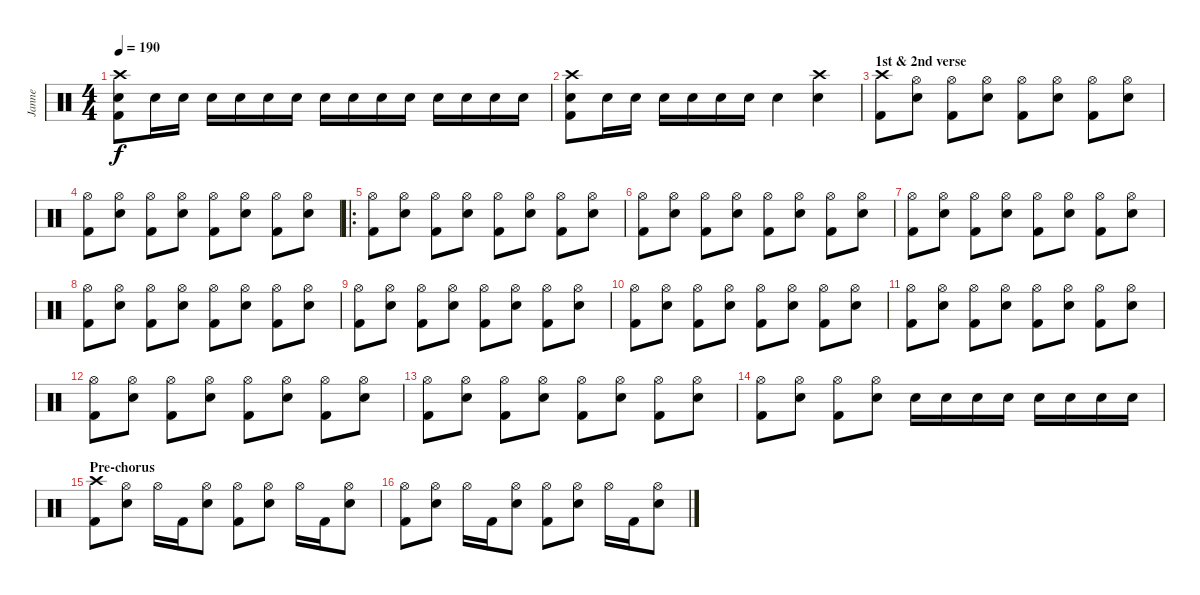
\track ("Janne" "Janne") {instrument percussion}
\staff {score}
\articulation defaults
\ts (4 4)
\tempo 190
\clef neutral
\ks c
("Crash high (hit)" "Electric Snare (hit)" "Kick (hit) 2").8{dy f} "Electric Snare (hit)".16 "Electric Snare (hit)".16 "Electric Snare (hit)".16 "Electric Snare (hit)".16 "Electric Snare (hit)".16 "Electric Snare (hit)".16 "Electric Snare (hit)".16 "Electric Snare (hit)".16 "Electric Snare (hit)".16 "Electric Snare (hit)".16 "Electric Snare (hit)".16 "Electric Snare (hit)".16 "Electric Snare (hit)".16 "Electric Snare (hit)".16 |
("Crash high (hit)" "Electric Snare (hit)" "Kick (hit) 2").8 "Electric Snare (hit)".16 "Electric Snare (hit)".16 "Electric Snare (hit)".16 "Electric Snare (hit)".16 "Electric Snare (hit)".16 "Electric Snare (hit)".16 "Electric Snare (hit)".4 ("Crash high (hit)" "Electric Snare (hit)").4 |
\section ("" "1st & 2nd verse")
("Crash high (hit)" "Kick (hit) 2").8 ("Hi-Hat (open)" "Electric Snare (hit)").8 ("Hi-Hat (open)" "Kick (hit) 2").8 ("Hi-Hat (open)" "Electric Snare (hit)").8 ("Hi-Hat (open)" "Kick (hit) 2").8 ("Hi-Hat (open)" "Electric Snare (hit)").8 ("Hi-Hat (open)" "Kick (hit) 2").8 ("Hi-Hat (open)" "Electric Snare (hit)").8 |
("Hi-Hat (open)" "Kick (hit) 2").8 ("Hi-Hat (open)" "Electric Snare (hit)").8 ("Hi-Hat (open)" "Kick (hit) 2").8 ("Hi-Hat (open)" "Electric Snare (hit)").8 ("Hi-Hat (open)" "Kick (hit) 2").8 ("Hi-Hat (open)" "Electric Snare (hit)").8 ("Hi-Hat (open)" "Kick (hit) 2").8 ("Hi-Hat (open)" "Electric Snare (hit)").8 |
\ro
("Hi-Hat (open)" "Kick (hit) 2").8 ("Hi-Hat (open)" "Electric Snare (hit)").8 ("Hi-Hat (open)" "Kick (hit) 2").8 ("Hi-Hat (open)" "Electric Snare (hit)").8 ("Hi-Hat (open)" "Kick (hit) 2").8 ("Hi-Hat (open)" "Electric Snare (hit)").8 ("Hi-Hat (open)" "Kick (hit) 2").8 ("Hi-Hat (open)" "Electric Snare (hit)").8 |
("Hi-Hat (open)" "Kick (hit) 2").8 ("Hi-Hat (open)" "Electric Snare (hit)").8 ("Hi-Hat (open)" "Kick (hit) 2").8 ("Hi-Hat (open)" "Electric Snare (hit)").8 ("Hi-Hat (open)" "Kick (hit) 2").8 ("Hi-Hat (open)" "Electric Snare (hit)").8 ("Hi-Hat (open)" "Kick (hit) 2").8 ("Hi-Hat (open)" "Electric Snare (hit)").8 |
("Hi-Hat (open)" "Kick (hit) 2").8 ("Hi-Hat (open)" "Electric Snare (hit)").8 ("Hi-Hat (open)" "Kick (hit) 2").8 ("Hi-Hat (open)" "Electric Snare (hit)").8 ("Hi-Hat (open)" "Kick (hit) 2").8 ("Hi-Hat (open)" "Electric Snare (hit)").8 ("Hi-Hat (open)" "Kick (hit) 2").8 ("Hi-Hat (open)" "Electric Snare (hit)").8 |
("Hi-Hat (open)" "Kick (hit) 2").8 ("Hi-Hat (open)" "Electric Snare (hit)").8 ("Hi-Hat (open)" "Kick (hit) 2").8 ("Hi-Hat (open)" "Electric Snare (hit)").8 ("Hi-Hat (open)" "Kick (hit) 2").8 ("Hi-Hat (open)" "Electric Snare (hit)").8 ("Hi-Hat (open)" "Kick (hit) 2").8 ("Hi-Hat (open)" "Electric Snare (hit)").8 |
("Hi-Hat (open)" "Kick (hit) 2").8 ("Hi-Hat (open)" "Electric Snare (hit)").8 ("Hi-Hat (open)" "Kick (hit) 2").8 ("Hi-Hat (open)" "Electric Snare (hit)").8 ("Hi-Hat (open)" "Kick (hit) 2").8 ("Hi-Hat (open)" "Electric Snare (hit)").8 ("Hi-Hat (open)" "Kick (hit) 2").8 ("Hi-Hat (open)" "Electric Snare (hit)").8 |
("Hi-Hat (open)" "Kick (hit) 2").8 ("Hi-Hat (open)" "Electric Snare (hit)").8 ("Hi-Hat (open)" "Kick (hit) 2").8 ("Hi-Hat (open)" "Electric Snare (hit)").8 ("Hi-Hat (open)" "Kick (hit) 2").8 ("Hi-Hat (open)" "Electric Snare (hit)").8 ("Hi-Hat (open)" "Kick (hit) 2").8 ("Hi-Hat (open)" "Electric Snare (hit)").8 |
("Hi-Hat (open)" "Kick (hit) 2").8 ("Hi-Hat (open)" "Electric Snare (hit)").8 ("Hi-Hat (open)" "Kick (hit) 2").8 ("Hi-Hat (open)" "Electric Snare (hit)").8 ("Hi-Hat (open)" "Kick (hit) 2").8 ("Hi-Hat (open)" "Electric Snare (hit)").8 ("Hi-Hat (open)" "Kick (hit) 2").8 ("Hi-Hat (open)" "Electric Snare (hit)").8 |
("Hi-Hat (open)" "Kick (hit) 2").8 ("Hi-Hat (open)" "Electric Snare (hit)").8 ("Hi-Hat (open)" "Kick (hit) 2").8 ("Hi-Hat (open)" "Electric Snare (hit)").8 ("Hi-Hat (open)" "Kick (hit) 2").8 ("Hi-Hat (open)" "Electric Snare (hit)").8 ("Hi-Hat (open)" "Kick (hit) 2").8 ("Hi-Hat (open)" "Electric Snare (hit)").8 |
("Hi-Hat (open)" "Kick (hit) 2").8 ("Hi-Hat (open)" "Electric Snare (hit)").8 ("Hi-Hat (open)" "Kick (hit) 2").8 ("Hi-Hat (open)" "Electric Snare (hit)").8 ("Hi-Hat (open)" "Kick (hit) 2").8 ("Hi-Hat (open)" "Electric Snare (hit)").8 ("Hi-Hat (open)" "Kick (hit) 2").8 ("Hi-Hat (open)" "Electric Snare (hit)").8 |
("Hi-Hat (open)" "Kick (hit) 2").8 ("Hi-Hat (open)" "Electric Snare (hit)").8 ("Hi-Hat (open)" "Kick (hit) 2").8 ("Hi-Hat (open)" "Electric Snare (hit)").8 "Electric Snare (hit)".16 "Electric Snare (hit)".16 "Electric Snare (hit)".16 "Electric Snare (hit)".16 "Electric Snare (hit)".16 "Electric Snare (hit)".16 "Electric Snare (hit)".16 "Electric Snare (hit)".16 |
\section ("" "Pre-chorus")
("Crash high (hit)" "Kick (hit) 2").8 ("Hi-Hat (open)" "Electric Snare (hit)").8 "Hi-Hat (open)".16 "Kick (hit) 2".16 ("Hi-Hat (open)" "Electric Snare (hit)").8 ("Hi-Hat (open)" "Kick (hit) 2").8 ("Hi-Hat (open)" "Electric Snare (hit)").8 "Hi-Hat (open)".16 "Kick (hit) 2".16 ("Hi-Hat (open)" "Electric Snare (hit)").8 |
("Hi-Hat (open)" "Kick (hit) 2").8 ("Hi-Hat (open)" "Electric Snare (hit)").8 "Hi-Hat (open)".16 "Kick (hit) 2".16 ("Hi-Hat (open)" "Electric Snare (hit)").8 ("Hi-Hat (open)" "Kick (hit) 2").8 ("Hi-Hat (open)" "Electric Snare (hit)").8 "Hi-Hat (open)".16 "Kick (hit) 2".16 ("Hi-Hat (open)" "Electric Snare (hit)").8
